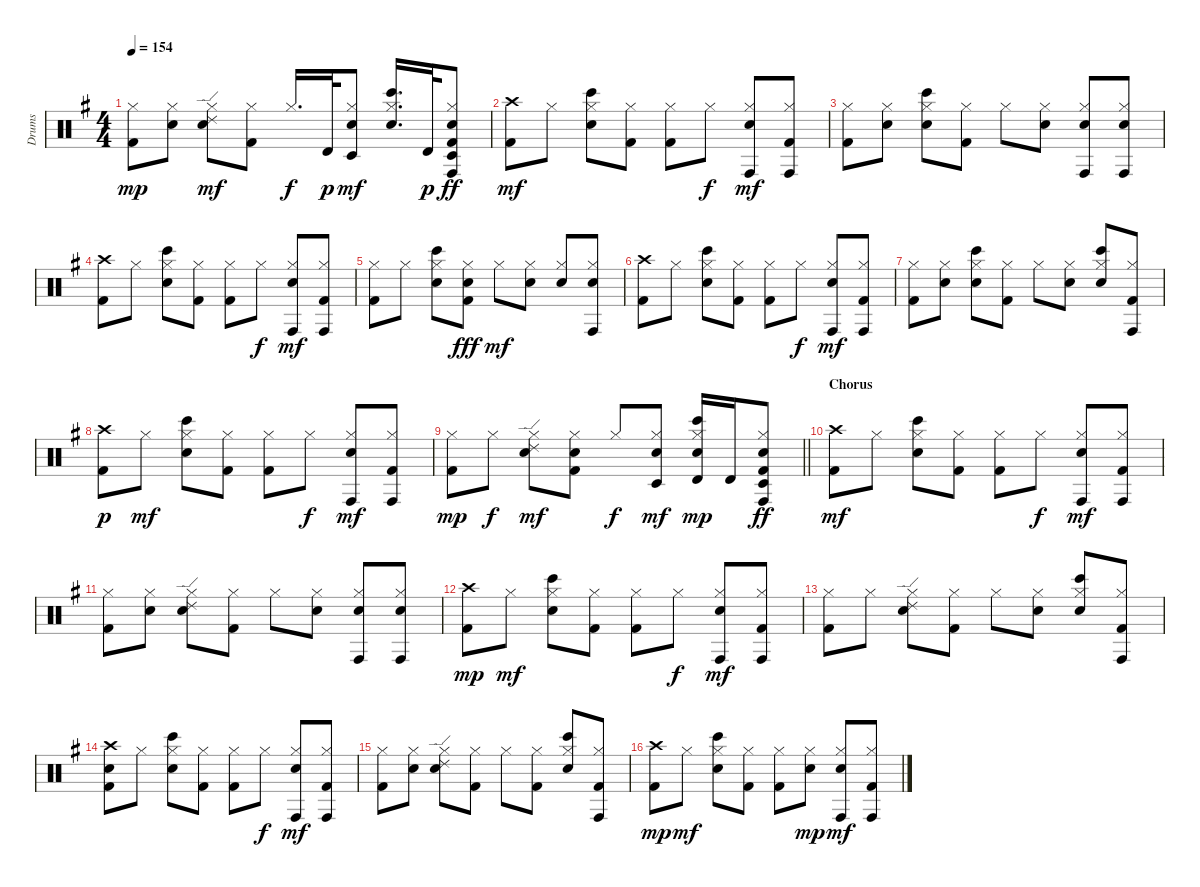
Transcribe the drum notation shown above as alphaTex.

\track ("Drums" "Drums") {instrument percussion}
\staff {score}
\articulation defaults
\ts (4 4)
\tempo 154
\clef neutral
\ks g
("Kick (hit) 2" "Hi-Hat (closed)").8{dy mp} ("Electric Snare (hit)" "Hi-Hat (closed)").8 ("Electric Snare (hit)" "Hi-Hat (closed)" "Ride (edge) 2").8{dy mf} ("Kick (hit) 2" "Hi-Hat (closed)").8 "Hi-Hat (closed)".16{d dy f} "Timbale high (hit)".32{dy p} ("Electric Snare (hit)" "Hi-Hat (closed)" "Timbale low (hit)").8{dy mf} ("Electric Snare (hit)" "Hi-Hat (closed)" "Bongo High (hit)").16{d} "Timbale high (hit)".32{dy p} ("Kick (hit) 2" "Electric Snare (hit)" "Hi-Hat (closed)" "Conga high (hit)" "Timbale low (hit)").8{dy ff} |
("Kick (hit) 2" "Crash high (hit)").8{dy mf} "Hi-Hat (closed)".8 ("Electric Snare (hit)" "Hi-Hat (closed)" "Bongo High (hit)").8 ("Kick (hit) 2" "Hi-Hat (closed)").8 ("Kick (hit) 2" "Hi-Hat (closed)").8 "Hi-Hat (closed)".8{dy f} ("Electric Snare (hit)" "Hi-Hat (closed)" "Conga high (hit)").8{dy mf} ("Kick (hit) 2" "Hi-Hat (closed)" "Conga high (hit)").8 |
("Kick (hit) 2" "Hi-Hat (closed)").8 ("Electric Snare (hit)" "Hi-Hat (closed)").8 ("Electric Snare (hit)" "Hi-Hat (closed)" "Bongo High (hit)").8 ("Kick (hit) 2" "Hi-Hat (closed)").8 "Hi-Hat (closed)".8 ("Electric Snare (hit)" "Hi-Hat (closed)").8 ("Electric Snare (hit)" "Hi-Hat (closed)" "Conga high (hit)").8 ("Electric Snare (hit)" "Hi-Hat (closed)" "Conga high (hit)").8 |
("Kick (hit) 2" "Crash high (hit)").8 "Hi-Hat (closed)".8 ("Electric Snare (hit)" "Hi-Hat (closed)" "Bongo High (hit)").8 ("Kick (hit) 2" "Hi-Hat (closed)").8 ("Kick (hit) 2" "Hi-Hat (closed)").8 "Hi-Hat (closed)".8{dy f} ("Electric Snare (hit)" "Hi-Hat (closed)" "Conga high (hit)").8{dy mf} ("Kick (hit) 2" "Hi-Hat (closed)" "Conga high (hit)").8 |
("Kick (hit) 2" "Hi-Hat (closed)").8 "Hi-Hat (closed)".8 ("Electric Snare (hit)" "Hi-Hat (closed)" "Bongo High (hit)").8 ("Kick (hit) 2" "Hi-Hat (closed)" "Electric Snare (hit)").8{dy fff} "Hi-Hat (closed)".8{dy mf} ("Electric Snare (hit)" "Hi-Hat (closed)").8 ("Electric Snare (hit)" "Hi-Hat (closed)").8 ("Electric Snare (hit)" "Hi-Hat (closed)" "Conga high (hit)").8 |
("Kick (hit) 2" "Crash high (hit)").8 "Hi-Hat (closed)".8 ("Electric Snare (hit)" "Hi-Hat (closed)" "Bongo High (hit)").8 ("Kick (hit) 2" "Hi-Hat (closed)").8 ("Kick (hit) 2" "Hi-Hat (closed)").8 "Hi-Hat (closed)".8{dy f} ("Electric Snare (hit)" "Hi-Hat (closed)" "Conga high (hit)").8{dy mf} ("Kick (hit) 2" "Hi-Hat (closed)" "Conga high (hit)").8 |
("Kick (hit) 2" "Hi-Hat (closed)").8 ("Electric Snare (hit)" "Hi-Hat (closed)").8 ("Electric Snare (hit)" "Hi-Hat (closed)" "Bongo High (hit)").8 ("Kick (hit) 2" "Hi-Hat (closed)").8 "Hi-Hat (closed)".8 ("Electric Snare (hit)" "Hi-Hat (closed)").8 ("Electric Snare (hit)" "Hi-Hat (closed)" "Bongo High (hit)").8 ("Kick (hit) 2" "Hi-Hat (closed)" "Conga high (hit)").8 |
("Kick (hit) 2" "Crash high (hit)").8{dy p} "Hi-Hat (closed)".8{dy mf} ("Electric Snare (hit)" "Hi-Hat (closed)" "Bongo High (hit)").8 ("Kick (hit) 2" "Hi-Hat (closed)").8 ("Kick (hit) 2" "Hi-Hat (closed)").8 "Hi-Hat (closed)".8{dy f} ("Electric Snare (hit)" "Hi-Hat (closed)" "Conga high (hit)").8{dy mf} ("Kick (hit) 2" "Hi-Hat (closed)" "Conga high (hit)").8 |
\barLineRight lightlight
("Kick (hit) 2" "Hi-Hat (closed)").8{dy mp} "Hi-Hat (closed)".8{dy f} ("Electric Snare (hit)" "Hi-Hat (closed)" "Ride (edge) 2").8{dy mf} ("Kick (hit) 2" "Electric Snare (hit)" "Hi-Hat (closed)").8 "Hi-Hat (closed)".8{dy f} ("Electric Snare (hit)" "Hi-Hat (closed)" "Timbale low (hit)").8{dy mf} ("Electric Snare (hit)" "Hi-Hat (closed)" "Bongo High (hit)" "Timbale high (hit)").16{dy mp} "Timbale high (hit)".16 ("Kick (hit) 2" "Electric Snare (hit)" "Hi-Hat (closed)" "Conga high (hit)" "Timbale low (hit)").8{dy ff} |
\section ("" "Chorus")
("Kick (hit) 2" "Crash high (hit)").8{dy mf} "Hi-Hat (closed)".8 ("Electric Snare (hit)" "Hi-Hat (closed)" "Bongo High (hit)").8 ("Kick (hit) 2" "Hi-Hat (closed)").8 ("Kick (hit) 2" "Hi-Hat (closed)").8 "Hi-Hat (closed)".8{dy f} ("Electric Snare (hit)" "Hi-Hat (closed)" "Conga high (hit)").8{dy mf} ("Kick (hit) 2" "Hi-Hat (closed)" "Conga high (hit)").8 |
("Kick (hit) 2" "Hi-Hat (closed)").8 ("Electric Snare (hit)" "Hi-Hat (closed)").8 ("Electric Snare (hit)" "Hi-Hat (closed)" "Ride (edge) 2").8 ("Kick (hit) 2" "Hi-Hat (closed)").8 "Hi-Hat (closed)".8 ("Electric Snare (hit)" "Hi-Hat (closed)").8 ("Electric Snare (hit)" "Hi-Hat (closed)" "Conga high (hit)").8 ("Electric Snare (hit)" "Hi-Hat (closed)" "Conga high (hit)").8 |
("Kick (hit) 2" "Crash high (hit)").8{dy mp} "Hi-Hat (closed)".8{dy mf} ("Electric Snare (hit)" "Hi-Hat (closed)" "Bongo High (hit)").8 ("Kick (hit) 2" "Hi-Hat (closed)").8 ("Kick (hit) 2" "Hi-Hat (closed)").8 "Hi-Hat (closed)".8{dy f} ("Electric Snare (hit)" "Hi-Hat (closed)" "Conga high (hit)").8{dy mf} ("Kick (hit) 2" "Hi-Hat (closed)" "Conga high (hit)").8 |
("Kick (hit) 2" "Hi-Hat (closed)").8 "Hi-Hat (closed)".8 ("Electric Snare (hit)" "Hi-Hat (closed)" "Ride (edge) 2").8 ("Kick (hit) 2" "Hi-Hat (closed)").8 "Hi-Hat (closed)".8 ("Electric Snare (hit)" "Hi-Hat (closed)").8 ("Electric Snare (hit)" "Hi-Hat (closed)" "Bongo High (hit)").8 ("Kick (hit) 2" "Hi-Hat (closed)" "Conga high (hit)").8 |
("Kick (hit) 2" "Electric Snare (hit)" "Crash high (hit)").8 "Hi-Hat (closed)".8 ("Electric Snare (hit)" "Hi-Hat (closed)" "Bongo High (hit)").8 ("Kick (hit) 2" "Hi-Hat (closed)").8 ("Kick (hit) 2" "Hi-Hat (closed)").8 "Hi-Hat (closed)".8{dy f} ("Electric Snare (hit)" "Hi-Hat (closed)" "Conga high (hit)").8{dy mf} ("Kick (hit) 2" "Hi-Hat (closed)" "Conga high (hit)").8 |
("Kick (hit) 2" "Hi-Hat (closed)").8 ("Electric Snare (hit)" "Hi-Hat (closed)").8 ("Electric Snare (hit)" "Hi-Hat (closed)" "Ride (edge) 2").8 ("Kick (hit) 2" "Hi-Hat (closed)").8 "Hi-Hat (closed)".8 ("Kick (hit) 2" "Hi-Hat (closed)").8 ("Electric Snare (hit)" "Hi-Hat (closed)" "Bongo High (hit)").8 ("Kick (hit) 2" "Hi-Hat (closed)" "Conga high (hit)").8 |
("Kick (hit) 2" "Crash high (hit)").8{dy mp} "Hi-Hat (closed)".8{dy mf} ("Electric Snare (hit)" "Hi-Hat (closed)" "Bongo High (hit)").8 ("Kick (hit) 2" "Hi-Hat (closed)").8 ("Kick (hit) 2" "Hi-Hat (closed)").8 ("Electric Snare (hit)" "Hi-Hat (closed)").8{dy mp} ("Electric Snare (hit)" "Hi-Hat (closed)" "Conga high (hit)").8{dy mf} ("Kick (hit) 2" "Hi-Hat (closed)" "Conga high (hit)").8
